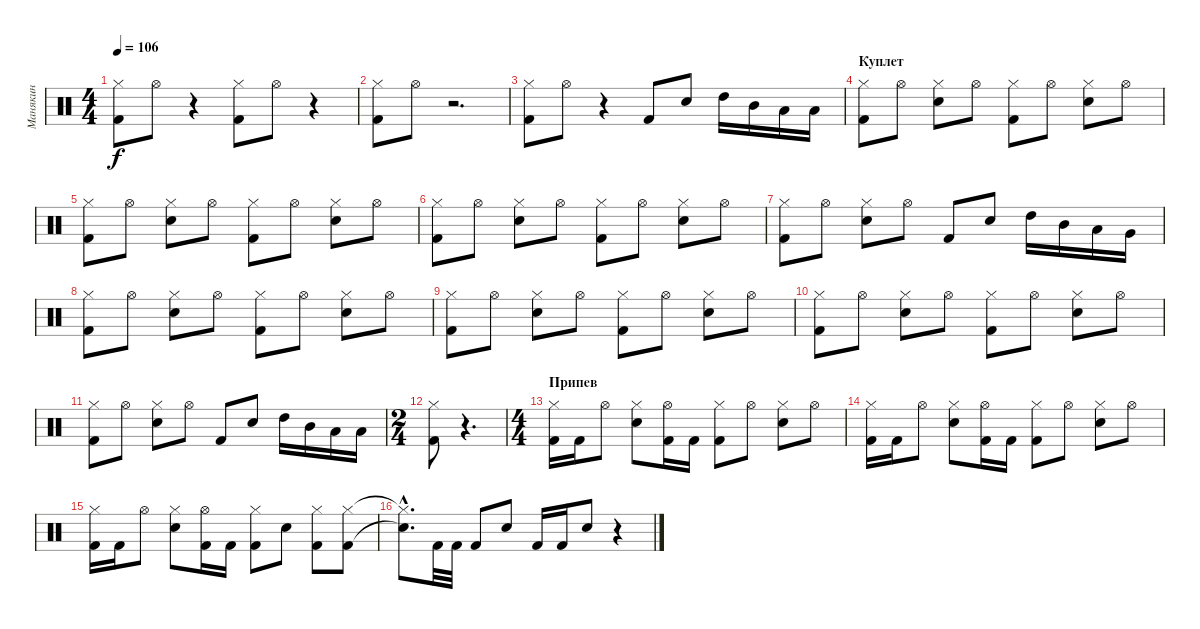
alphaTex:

\track ("Манякин" "Манякин") {instrument percussion}
\staff {score}
\articulation defaults
\ts (4 4)
\tempo 106
\clef neutral
\ks c
("Hi-Hat (closed)" "Kick (hit) 2").8{dy f} "Hi-Hat (open)".8 r.4 ("Hi-Hat (closed)" "Kick (hit) 2").8 "Hi-Hat (open)".8 r.4 |
("Hi-Hat (closed)" "Kick (hit) 2").8 "Hi-Hat (open)".8 r.2{d} |
("Hi-Hat (closed)" "Kick (hit) 2").8 "Hi-Hat (open)".8 r.4 "Kick (hit) 2".8 "Electric Snare (hit)".8 "High Tom (hit)".16 "Mid Tom (hit)".16 "Low Tom (hit)".16 "Low Tom (hit)".16 |
\section ("" "Куплет")
("Hi-Hat (closed)" "Kick (hit) 2").8 "Hi-Hat (open)".8 ("Hi-Hat (closed)" "Electric Snare (hit)").8 "Hi-Hat (open)".8 ("Hi-Hat (closed)" "Kick (hit) 2").8 "Hi-Hat (open)".8 ("Hi-Hat (closed)" "Electric Snare (hit)").8 "Hi-Hat (open)".8 |
("Hi-Hat (closed)" "Kick (hit) 2").8 "Hi-Hat (open)".8 ("Hi-Hat (closed)" "Electric Snare (hit)").8 "Hi-Hat (open)".8 ("Hi-Hat (closed)" "Kick (hit) 2").8 "Hi-Hat (open)".8 ("Hi-Hat (closed)" "Electric Snare (hit)").8 "Hi-Hat (open)".8 |
("Hi-Hat (closed)" "Kick (hit) 2").8 "Hi-Hat (open)".8 ("Hi-Hat (closed)" "Electric Snare (hit)").8 "Hi-Hat (open)".8 ("Hi-Hat (closed)" "Kick (hit) 2").8 "Hi-Hat (open)".8 ("Hi-Hat (closed)" "Electric Snare (hit)").8 "Hi-Hat (open)".8 |
("Hi-Hat (closed)" "Kick (hit) 2").8 "Hi-Hat (open)".8 ("Hi-Hat (closed)" "Electric Snare (hit)").8 "Hi-Hat (open)".8 "Kick (hit) 2".8 "Electric Snare (hit)".8 "High Tom (hit)".16 "Mid Tom (hit)".16 "Low Tom (hit)".16 "Very Low Tom (hit)".16 |
("Hi-Hat (closed)" "Kick (hit) 2").8 "Hi-Hat (open)".8 ("Hi-Hat (closed)" "Electric Snare (hit)").8 "Hi-Hat (open)".8 ("Hi-Hat (closed)" "Kick (hit) 2").8 "Hi-Hat (open)".8 ("Hi-Hat (closed)" "Electric Snare (hit)").8 "Hi-Hat (open)".8 |
("Hi-Hat (closed)" "Kick (hit) 2").8 "Hi-Hat (open)".8 ("Hi-Hat (closed)" "Electric Snare (hit)").8 "Hi-Hat (open)".8 ("Hi-Hat (closed)" "Kick (hit) 2").8 "Hi-Hat (open)".8 ("Hi-Hat (closed)" "Electric Snare (hit)").8 "Hi-Hat (open)".8 |
("Hi-Hat (closed)" "Kick (hit) 2").8 "Hi-Hat (open)".8 ("Hi-Hat (closed)" "Electric Snare (hit)").8 "Hi-Hat (open)".8 ("Hi-Hat (closed)" "Kick (hit) 2").8 "Hi-Hat (open)".8 ("Hi-Hat (closed)" "Electric Snare (hit)").8 "Hi-Hat (open)".8 |
("Hi-Hat (closed)" "Kick (hit) 2").8 "Hi-Hat (open)".8 ("Hi-Hat (closed)" "Electric Snare (hit)").8 "Hi-Hat (open)".8 "Kick (hit) 2".8 "Electric Snare (hit)".8 "High Tom (hit)".16 "Mid Tom (hit)".16 "Low Tom (hit)".16 "Low Tom (hit)".16 |
\ts (2 4)
("Hi-Hat (closed)" "Kick (hit) 2").8 r.4{d} |
\ts (4 4)
\section ("" "Припев")
("Hi-Hat (closed)" "Kick (hit) 2").16 "Kick (hit) 2".16 "Hi-Hat (open)".8 ("Hi-Hat (closed)" "Electric Snare (hit)").8 ("Kick (hit) 2" "Hi-Hat (open)").16 "Kick (hit) 2".16 ("Hi-Hat (closed)" "Kick (hit) 2").8 "Hi-Hat (open)".8 ("Hi-Hat (closed)" "Electric Snare (hit)").8 "Hi-Hat (open)".8 |
("Hi-Hat (closed)" "Kick (hit) 2").16 "Kick (hit) 2".16 "Hi-Hat (open)".8 ("Hi-Hat (closed)" "Electric Snare (hit)").8 ("Kick (hit) 2" "Hi-Hat (open)").16 "Kick (hit) 2".16 ("Hi-Hat (closed)" "Kick (hit) 2").8 "Hi-Hat (open)".8 ("Hi-Hat (closed)" "Electric Snare (hit)").8 "Hi-Hat (open)".8 |
("Hi-Hat (closed)" "Kick (hit) 2").16 "Kick (hit) 2".16 "Hi-Hat (open)".8 ("Hi-Hat (closed)" "Electric Snare (hit)").8 ("Kick (hit) 2" "Hi-Hat (open)").16 "Kick (hit) 2".16 ("Hi-Hat (closed)" "Kick (hit) 2").8 "Electric Snare (hit)".8 ("Hi-Hat (closed)" "Kick (hit) 2").8 ("Hi-Hat (closed)" "Kick (hit) 2").8 |
("Hi-Hat (closed)"{hac t} "Electric Snare (hit)"{hac t}).8{d} "Kick (hit) 2".32 "Kick (hit) 2".32 "Kick (hit) 2".8 "Electric Snare (hit)".8 "Kick (hit) 2".16 "Kick (hit) 2".16 "Electric Snare (hit)".8 r.4
